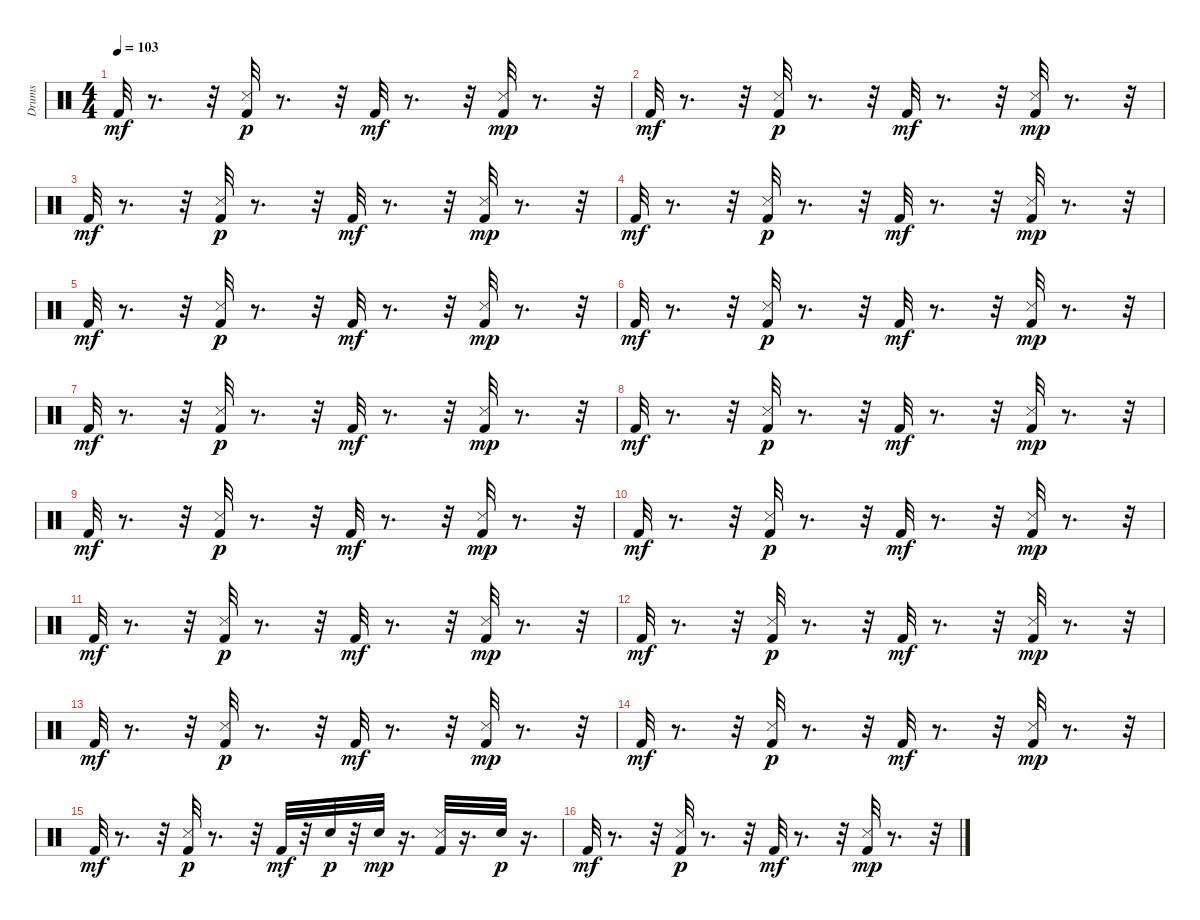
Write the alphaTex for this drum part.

\track ("Drums" "Drums") {instrument percussion}
\staff {score}
\articulation defaults
\ts (4 4)
\tempo 103
\clef neutral
\ks c "Kick (hit) 2".32{dy mf}
r.8{d} r.32 ("Kick (hit) 2" "Snare (side stick) 3").32{dy p} r.8{d} r.32 "Kick (hit) 2".32{dy mf} r.8{d} r.32 ("Kick (hit) 2" "Snare (side stick) 3").32{dy mp} r.8{d} r.32 |
"Kick (hit) 2".32{dy mf} r.8{d} r.32 ("Kick (hit) 2" "Snare (side stick) 3").32{dy p} r.8{d} r.32 "Kick (hit) 2".32{dy mf} r.8{d} r.32 ("Kick (hit) 2" "Snare (side stick) 3").32{dy mp} r.8{d} r.32 |
"Kick (hit) 2".32{dy mf} r.8{d} r.32 ("Kick (hit) 2" "Snare (side stick) 3").32{dy p} r.8{d} r.32 "Kick (hit) 2".32{dy mf} r.8{d} r.32 ("Kick (hit) 2" "Snare (side stick) 3").32{dy mp} r.8{d} r.32 |
"Kick (hit) 2".32{dy mf} r.8{d} r.32 ("Kick (hit) 2" "Snare (side stick) 3").32{dy p} r.8{d} r.32 "Kick (hit) 2".32{dy mf} r.8{d} r.32 ("Kick (hit) 2" "Snare (side stick) 3").32{dy mp} r.8{d} r.32 |
"Kick (hit) 2".32{dy mf} r.8{d} r.32 ("Kick (hit) 2" "Snare (side stick) 3").32{dy p} r.8{d} r.32 "Kick (hit) 2".32{dy mf} r.8{d} r.32 ("Kick (hit) 2" "Snare (side stick) 3").32{dy mp} r.8{d} r.32 |
"Kick (hit) 2".32{dy mf} r.8{d} r.32 ("Kick (hit) 2" "Snare (side stick) 3").32{dy p} r.8{d} r.32 "Kick (hit) 2".32{dy mf} r.8{d} r.32 ("Kick (hit) 2" "Snare (side stick) 3").32{dy mp} r.8{d} r.32 |
"Kick (hit) 2".32{dy mf} r.8{d} r.32 ("Kick (hit) 2" "Snare (side stick) 3").32{dy p} r.8{d} r.32 "Kick (hit) 2".32{dy mf} r.8{d} r.32 ("Kick (hit) 2" "Snare (side stick) 3").32{dy mp} r.8{d} r.32 |
"Kick (hit) 2".32{dy mf} r.8{d} r.32 ("Kick (hit) 2" "Snare (side stick) 3").32{dy p} r.8{d} r.32 "Kick (hit) 2".32{dy mf} r.8{d} r.32 ("Kick (hit) 2" "Snare (side stick) 3").32{dy mp} r.8{d} r.32 |
"Kick (hit) 2".32{dy mf} r.8{d} r.32 ("Kick (hit) 2" "Snare (side stick) 3").32{dy p} r.8{d} r.32 "Kick (hit) 2".32{dy mf} r.8{d} r.32 ("Kick (hit) 2" "Snare (side stick) 3").32{dy mp} r.8{d} r.32 |
"Kick (hit) 2".32{dy mf} r.8{d} r.32 ("Kick (hit) 2" "Snare (side stick) 3").32{dy p} r.8{d} r.32 "Kick (hit) 2".32{dy mf} r.8{d} r.32 ("Kick (hit) 2" "Snare (side stick) 3").32{dy mp} r.8{d} r.32 |
"Kick (hit) 2".32{dy mf} r.8{d} r.32 ("Kick (hit) 2" "Snare (side stick) 3").32{dy p} r.8{d} r.32 "Kick (hit) 2".32{dy mf} r.8{d} r.32 ("Kick (hit) 2" "Snare (side stick) 3").32{dy mp} r.8{d} r.32 |
"Kick (hit) 2".32{dy mf} r.8{d} r.32 ("Kick (hit) 2" "Snare (side stick) 3").32{dy p} r.8{d} r.32 "Kick (hit) 2".32{dy mf} r.8{d} r.32 ("Kick (hit) 2" "Snare (side stick) 3").32{dy mp} r.8{d} r.32 |
"Kick (hit) 2".32{dy mf} r.8{d} r.32 ("Kick (hit) 2" "Snare (side stick) 3").32{dy p} r.8{d} r.32 "Kick (hit) 2".32{dy mf} r.8{d} r.32 ("Kick (hit) 2" "Snare (side stick) 3").32{dy mp} r.8{d} r.32 |
"Kick (hit) 2".32{dy mf} r.8{d} r.32 ("Kick (hit) 2" "Snare (side stick) 3").32{dy p} r.8{d} r.32 "Kick (hit) 2".32{dy mf} r.8{d} r.32 ("Kick (hit) 2" "Snare (side stick) 3").32{dy mp} r.8{d} r.32 |
"Kick (hit) 2".32{dy mf} r.8{d} r.32 ("Kick (hit) 2" "Snare (side stick) 3").32{dy p} r.8{d} r.32 "Kick (hit) 2".32{dy mf} r.32 "Electric Snare (hit)".32{dy p} r.32 "Electric Snare (hit)".32{dy mp} r.16{d} ("Kick (hit) 2" "Snare (side stick) 3").32 r.16{d} "Electric Snare (hit)".32{dy p} r.16{d} |
"Kick (hit) 2".32{dy mf} r.8{d} r.32 ("Kick (hit) 2" "Snare (side stick) 3").32{dy p} r.8{d} r.32 "Kick (hit) 2".32{dy mf} r.8{d} r.32 ("Kick (hit) 2" "Snare (side stick) 3").32{dy mp} r.8{d} r.32
